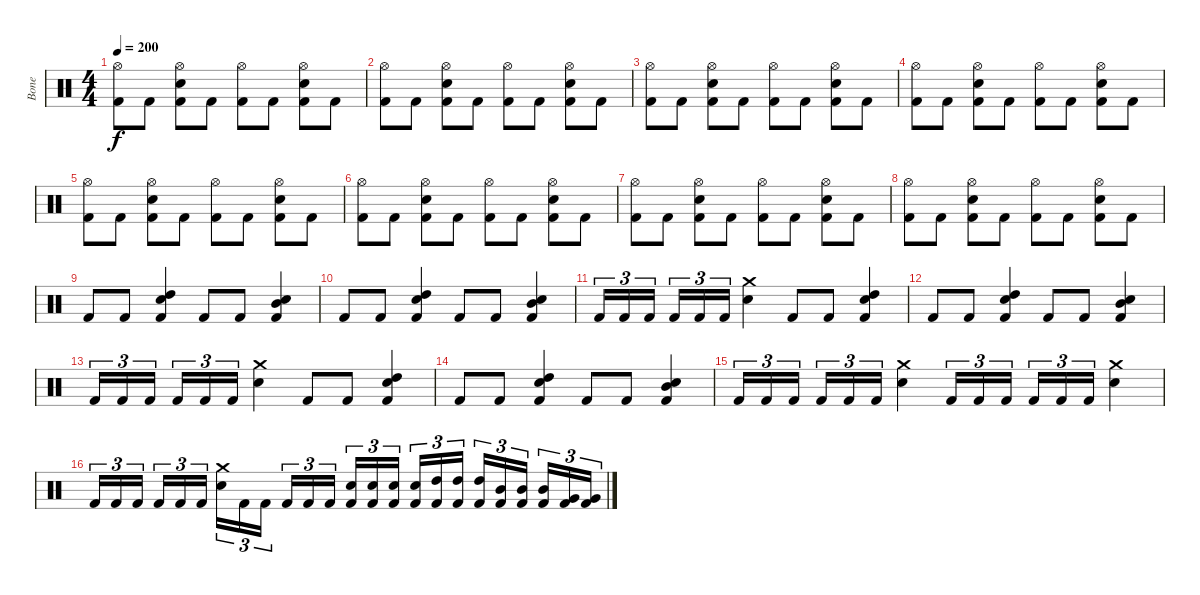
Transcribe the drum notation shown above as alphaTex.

\track ("Bone " "Bone ") {instrument percussion}
\staff {score}
\articulation defaults
\ts (4 4)
\tempo 200
\clef neutral
\ks c
("Hi-Hat (open)" "Kick (hit) 2").8{dy f} "Kick (hit) 2".8 ("Hi-Hat (open)" "Electric Snare (hit)" "Kick (hit) 2").8 "Kick (hit) 2".8 ("Hi-Hat (open)" "Kick (hit) 2").8 "Kick (hit) 2".8 ("Hi-Hat (open)" "Electric Snare (hit)" "Kick (hit) 2").8 "Kick (hit) 2".8 |
("Hi-Hat (open)" "Kick (hit) 2").8 "Kick (hit) 2".8 ("Hi-Hat (open)" "Electric Snare (hit)" "Kick (hit) 2").8 "Kick (hit) 2".8 ("Hi-Hat (open)" "Kick (hit) 2").8 "Kick (hit) 2".8 ("Hi-Hat (open)" "Electric Snare (hit)" "Kick (hit) 2").8 "Kick (hit) 2".8 |
("Hi-Hat (open)" "Kick (hit) 2").8 "Kick (hit) 2".8 ("Hi-Hat (open)" "Electric Snare (hit)" "Kick (hit) 2").8 "Kick (hit) 2".8 ("Hi-Hat (open)" "Kick (hit) 2").8 "Kick (hit) 2".8 ("Hi-Hat (open)" "Electric Snare (hit)" "Kick (hit) 2").8 "Kick (hit) 2".8 |
("Hi-Hat (open)" "Kick (hit) 2").8 "Kick (hit) 2".8 ("Hi-Hat (open)" "Electric Snare (hit)" "Kick (hit) 2").8 "Kick (hit) 2".8 ("Hi-Hat (open)" "Kick (hit) 2").8 "Kick (hit) 2".8 ("Hi-Hat (open)" "Electric Snare (hit)" "Kick (hit) 2").8 "Kick (hit) 2".8 |
("Hi-Hat (open)" "Kick (hit) 2").8 "Kick (hit) 2".8 ("Hi-Hat (open)" "Electric Snare (hit)" "Kick (hit) 2").8 "Kick (hit) 2".8 ("Hi-Hat (open)" "Kick (hit) 2").8 "Kick (hit) 2".8 ("Hi-Hat (open)" "Electric Snare (hit)" "Kick (hit) 2").8 "Kick (hit) 2".8 |
("Hi-Hat (open)" "Kick (hit) 2").8 "Kick (hit) 2".8 ("Hi-Hat (open)" "Electric Snare (hit)" "Kick (hit) 2").8 "Kick (hit) 2".8 ("Hi-Hat (open)" "Kick (hit) 2").8 "Kick (hit) 2".8 ("Hi-Hat (open)" "Electric Snare (hit)" "Kick (hit) 2").8 "Kick (hit) 2".8 |
("Hi-Hat (open)" "Kick (hit) 2").8 "Kick (hit) 2".8 ("Hi-Hat (open)" "Electric Snare (hit)" "Kick (hit) 2").8 "Kick (hit) 2".8 ("Hi-Hat (open)" "Kick (hit) 2").8 "Kick (hit) 2".8 ("Hi-Hat (open)" "Electric Snare (hit)" "Kick (hit) 2").8 "Kick (hit) 2".8 |
("Hi-Hat (open)" "Kick (hit) 2").8 "Kick (hit) 2".8 ("Hi-Hat (open)" "Electric Snare (hit)" "Kick (hit) 2").8 "Kick (hit) 2".8 ("Hi-Hat (open)" "Kick (hit) 2").8 "Kick (hit) 2".8 ("Hi-Hat (open)" "Electric Snare (hit)" "Kick (hit) 2").8 "Kick (hit) 2".8 |
"Kick (hit) 2".8 "Kick (hit) 2".8 ("High Tom (hit)" "Electric Snare (hit)" "Kick (hit) 2").4 "Kick (hit) 2".8 "Kick (hit) 2".8 ("Mid Tom (hit)" "Electric Snare (hit)" "Kick (hit) 2").4 |
"Kick (hit) 2".8 "Kick (hit) 2".8 ("High Tom (hit)" "Electric Snare (hit)" "Kick (hit) 2").4 "Kick (hit) 2".8 "Kick (hit) 2".8 ("Mid Tom (hit)" "Electric Snare (hit)" "Kick (hit) 2").4 |
"Kick (hit) 2".16{tu (3 2)} "Kick (hit) 2".16{tu (3 2)} "Kick (hit) 2".16{tu (3 2)} "Kick (hit) 2".16{tu (3 2)} "Kick (hit) 2".16{tu (3 2)} "Kick (hit) 2".16{tu (3 2)} ("Crash medium (hit)" "Electric Snare (hit)").4 "Kick (hit) 2".8 "Kick (hit) 2".8 ("High Tom (hit)" "Electric Snare (hit)" "Kick (hit) 2").4 |
"Kick (hit) 2".8 "Kick (hit) 2".8 ("High Tom (hit)" "Electric Snare (hit)" "Kick (hit) 2").4 "Kick (hit) 2".8 "Kick (hit) 2".8 ("Mid Tom (hit)" "Electric Snare (hit)" "Kick (hit) 2").4 |
"Kick (hit) 2".16{tu (3 2)} "Kick (hit) 2".16{tu (3 2)} "Kick (hit) 2".16{tu (3 2)} "Kick (hit) 2".16{tu (3 2)} "Kick (hit) 2".16{tu (3 2)} "Kick (hit) 2".16{tu (3 2)} ("Crash medium (hit)" "Electric Snare (hit)").4 "Kick (hit) 2".8 "Kick (hit) 2".8 ("High Tom (hit)" "Electric Snare (hit)" "Kick (hit) 2").4 |
"Kick (hit) 2".8 "Kick (hit) 2".8 ("High Tom (hit)" "Electric Snare (hit)" "Kick (hit) 2").4 "Kick (hit) 2".8 "Kick (hit) 2".8 ("Mid Tom (hit)" "Electric Snare (hit)" "Kick (hit) 2").4 |
"Kick (hit) 2".16{tu (3 2)} "Kick (hit) 2".16{tu (3 2)} "Kick (hit) 2".16{tu (3 2)} "Kick (hit) 2".16{tu (3 2)} "Kick (hit) 2".16{tu (3 2)} "Kick (hit) 2".16{tu (3 2)} ("Crash medium (hit)" "Electric Snare (hit)").4 "Kick (hit) 2".16{tu (3 2)} "Kick (hit) 2".16{tu (3 2)} "Kick (hit) 2".16{tu (3 2)} "Kick (hit) 2".16{tu (3 2)} "Kick (hit) 2".16{tu (3 2)} "Kick (hit) 2".16{tu (3 2)} ("Crash medium (hit)" "Electric Snare (hit)").4 |
"Kick (hit) 2".16{tu (3 2)} "Kick (hit) 2".16{tu (3 2)} "Kick (hit) 2".16{tu (3 2)} "Kick (hit) 2".16{tu (3 2)} "Kick (hit) 2".16{tu (3 2)} "Kick (hit) 2".16{tu (3 2)} ("Crash medium (hit)" "Electric Snare (hit)").16{tu (3 2)} "Kick (hit) 2".16{tu (3 2)} "Kick (hit) 2".16{tu (3 2)} "Kick (hit) 2".16{tu (3 2)} "Kick (hit) 2".16{tu (3 2)} "Kick (hit) 2".16{tu (3 2)} ("Electric Snare (hit)" "Kick (hit) 2").16{tu (3 2)} ("Electric Snare (hit)" "Kick (hit) 2").16{tu (3 2)} ("Electric Snare (hit)" "Kick (hit) 2").16{tu (3 2)} ("Electric Snare (hit)" "Kick (hit) 2").16{tu (3 2)} ("High Tom (hit)" "Kick (hit) 2").16{tu (3 2)} ("High Tom (hit)" "Kick (hit) 2").16{tu (3 2)} ("High Tom (hit)" "Kick (hit) 2").16{tu (3 2)} ("Mid Tom (hit)" "Kick (hit) 2").16{tu (3 2)} ("Mid Tom (hit)" "Kick (hit) 2").16{tu (3 2)} ("Mid Tom (hit)" "Kick (hit) 2").16{tu (3 2)} ("Very Low Tom (hit)" "Kick (hit) 2").16{tu (3 2)} ("Very Low Tom (hit)" "Kick (hit) 2").16{tu (3 2)}
